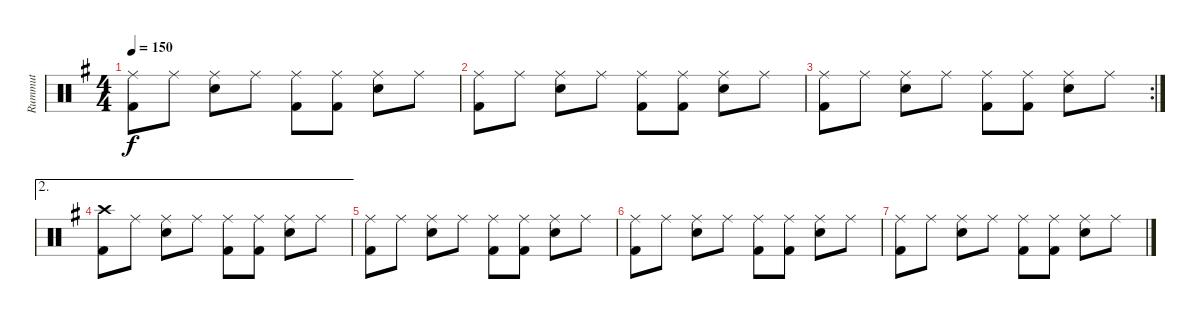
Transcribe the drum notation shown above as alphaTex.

\track ("Rummut" "Rummut") {instrument percussion}
\staff {score}
\articulation defaults
\ts (4 4)
\tempo 150
\clef neutral
\ks g
("Ride (middle)" "Kick (hit) 2").8{dy f} "Ride (middle)".8 ("Ride (middle)" "Electric Snare (hit)").8 "Ride (middle)".8 ("Ride (middle)" "Kick (hit) 2").8 ("Ride (middle)" "Kick (hit) 2").8 ("Ride (middle)" "Electric Snare (hit)").8 "Ride (middle)".8 |
("Ride (middle)" "Kick (hit) 2").8 "Ride (middle)".8 ("Ride (middle)" "Electric Snare (hit)").8 "Ride (middle)".8 ("Ride (middle)" "Kick (hit) 2").8 ("Ride (middle)" "Kick (hit) 2").8 ("Ride (middle)" "Electric Snare (hit)").8 "Ride (middle)".8 |
\rc 2
("Ride (middle)" "Kick (hit) 2").8 "Ride (middle)".8 ("Ride (middle)" "Electric Snare (hit)").8 "Ride (middle)".8 ("Ride (middle)" "Kick (hit) 2").8 ("Ride (middle)" "Kick (hit) 2").8 ("Ride (middle)" "Electric Snare (hit)").8 "Ride (middle)".8 |
\ae 2
("Crash high (hit)" "Kick (hit) 2").8 "Ride (middle)".8 ("Ride (middle)" "Electric Snare (hit)").8 "Ride (middle)".8 ("Ride (middle)" "Kick (hit) 2").8 ("Ride (middle)" "Kick (hit) 2").8 ("Ride (middle)" "Electric Snare (hit)").8 "Ride (middle)".8 |
("Ride (middle)" "Kick (hit) 2").8 "Ride (middle)".8 ("Ride (middle)" "Electric Snare (hit)").8 "Ride (middle)".8 ("Ride (middle)" "Kick (hit) 2").8 ("Ride (middle)" "Kick (hit) 2").8 ("Ride (middle)" "Electric Snare (hit)").8 "Ride (middle)".8 |
("Ride (middle)" "Kick (hit) 2").8 "Ride (middle)".8 ("Ride (middle)" "Electric Snare (hit)").8 "Ride (middle)".8 ("Ride (middle)" "Kick (hit) 2").8 ("Ride (middle)" "Kick (hit) 2").8 ("Ride (middle)" "Electric Snare (hit)").8 "Ride (middle)".8 |
("Ride (middle)" "Kick (hit) 2").8 "Ride (middle)".8 ("Ride (middle)" "Electric Snare (hit)").8 "Ride (middle)".8 ("Ride (middle)" "Kick (hit) 2").8 ("Ride (middle)" "Kick (hit) 2").8 ("Ride (middle)" "Electric Snare (hit)").8 "Ride (middle)".8
